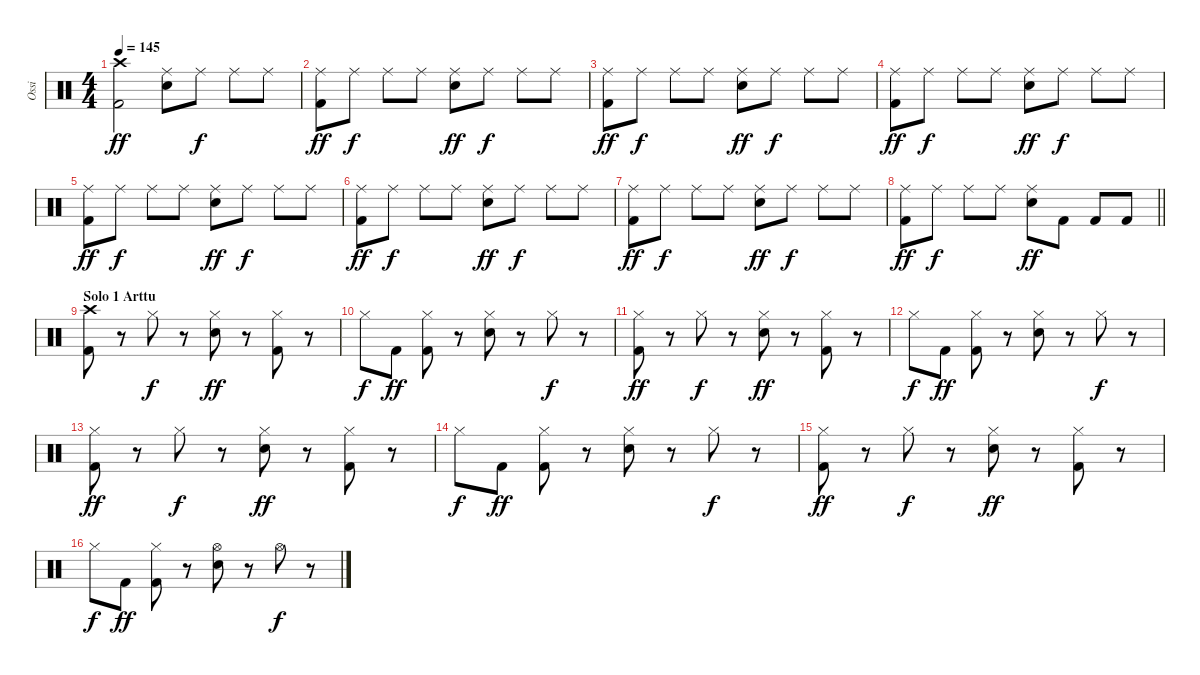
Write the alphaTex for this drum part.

\track ("Ossi" "Ossi") {instrument percussion}
\staff {score}
\articulation defaults
\ts (4 4)
\tempo 145
\clef neutral
\ks c
("Crash high (hit)" "Kick (hit) 2").2{dy ff} ("Ride (middle)" "Electric Snare (hit)").8 "Ride (middle)".8{dy f} "Ride (middle)".8 "Ride (middle)".8 |
("Ride (middle)" "Kick (hit) 2").8{dy ff} "Ride (middle)".8{dy f} "Ride (middle)".8 "Ride (middle)".8 ("Ride (middle)" "Electric Snare (hit)").8{dy ff} "Ride (middle)".8{dy f} "Ride (middle)".8 "Ride (middle)".8 |
("Ride (middle)" "Kick (hit) 2").8{dy ff} "Ride (middle)".8{dy f} "Ride (middle)".8 "Ride (middle)".8 ("Ride (middle)" "Electric Snare (hit)").8{dy ff} "Ride (middle)".8{dy f} "Ride (middle)".8 "Ride (middle)".8 |
("Ride (middle)" "Kick (hit) 2").8{dy ff} "Ride (middle)".8{dy f} "Ride (middle)".8 "Ride (middle)".8 ("Ride (middle)" "Electric Snare (hit)").8{dy ff} "Ride (middle)".8{dy f} "Ride (middle)".8 "Ride (middle)".8 |
("Ride (middle)" "Kick (hit) 2").8{dy ff} "Ride (middle)".8{dy f} "Ride (middle)".8 "Ride (middle)".8 ("Ride (middle)" "Electric Snare (hit)").8{dy ff} "Ride (middle)".8{dy f} "Ride (middle)".8 "Ride (middle)".8 |
("Ride (middle)" "Kick (hit) 2").8{dy ff} "Ride (middle)".8{dy f} "Ride (middle)".8 "Ride (middle)".8 ("Ride (middle)" "Electric Snare (hit)").8{dy ff} "Ride (middle)".8{dy f} "Ride (middle)".8 "Ride (middle)".8 |
("Ride (middle)" "Kick (hit) 2").8{dy ff} "Ride (middle)".8{dy f} "Ride (middle)".8 "Ride (middle)".8 ("Ride (middle)" "Electric Snare (hit)").8{dy ff} "Ride (middle)".8{dy f} "Ride (middle)".8 "Ride (middle)".8 |
\barLineRight lightlight
("Ride (middle)" "Kick (hit) 2").8{dy ff} "Ride (middle)".8{dy f} "Ride (middle)".8 "Ride (middle)".8 ("Ride (middle)" "Electric Snare (hit)").8{dy ff} "Kick (hit) 2".8 "Kick (hit) 2".8 "Kick (hit) 2".8 |
\section ("" "Solo 1 Arttu")
("Crash high (hit)" "Kick (hit) 2").8 r.8 "Hi-Hat (closed)".8{dy f} r.8 ("Hi-Hat (closed)" "Electric Snare (hit)").8{dy ff} r.8 ("Hi-Hat (closed)" "Kick (hit) 2").8 r.8 |
"Hi-Hat (closed)".8{dy f} "Kick (hit) 2".8{dy ff} ("Hi-Hat (closed)" "Kick (hit) 2").8 r.8 ("Hi-Hat (closed)" "Electric Snare (hit)").8 r.8 "Hi-Hat (closed)".8{dy f} r.8 |
("Hi-Hat (closed)" "Kick (hit) 2").8{dy ff} r.8 "Hi-Hat (closed)".8{dy f} r.8 ("Hi-Hat (closed)" "Electric Snare (hit)").8{dy ff} r.8 ("Hi-Hat (closed)" "Kick (hit) 2").8 r.8 |
"Hi-Hat (closed)".8{dy f} "Kick (hit) 2".8{dy ff} ("Hi-Hat (closed)" "Kick (hit) 2").8 r.8 ("Hi-Hat (closed)" "Electric Snare (hit)").8 r.8 "Hi-Hat (closed)".8{dy f} r.8 |
("Hi-Hat (closed)" "Kick (hit) 2").8{dy ff} r.8 "Hi-Hat (closed)".8{dy f} r.8 ("Hi-Hat (closed)" "Electric Snare (hit)").8{dy ff} r.8 ("Hi-Hat (closed)" "Kick (hit) 2").8 r.8 |
"Hi-Hat (closed)".8{dy f} "Kick (hit) 2".8{dy ff} ("Hi-Hat (closed)" "Kick (hit) 2").8 r.8 ("Hi-Hat (closed)" "Electric Snare (hit)").8 r.8 "Hi-Hat (closed)".8{dy f} r.8 |
("Hi-Hat (closed)" "Kick (hit) 2").8{dy ff} r.8 "Hi-Hat (closed)".8{dy f} r.8 ("Hi-Hat (closed)" "Electric Snare (hit)").8{dy ff} r.8 ("Hi-Hat (closed)" "Kick (hit) 2").8 r.8 |
"Hi-Hat (closed)".8{dy f} "Kick (hit) 2".8{dy ff} ("Hi-Hat (closed)" "Kick (hit) 2").8 r.8 ("Hi-Hat (open)" "Electric Snare (hit)").8 r.8 "Hi-Hat (open)".8{dy f} r.8
